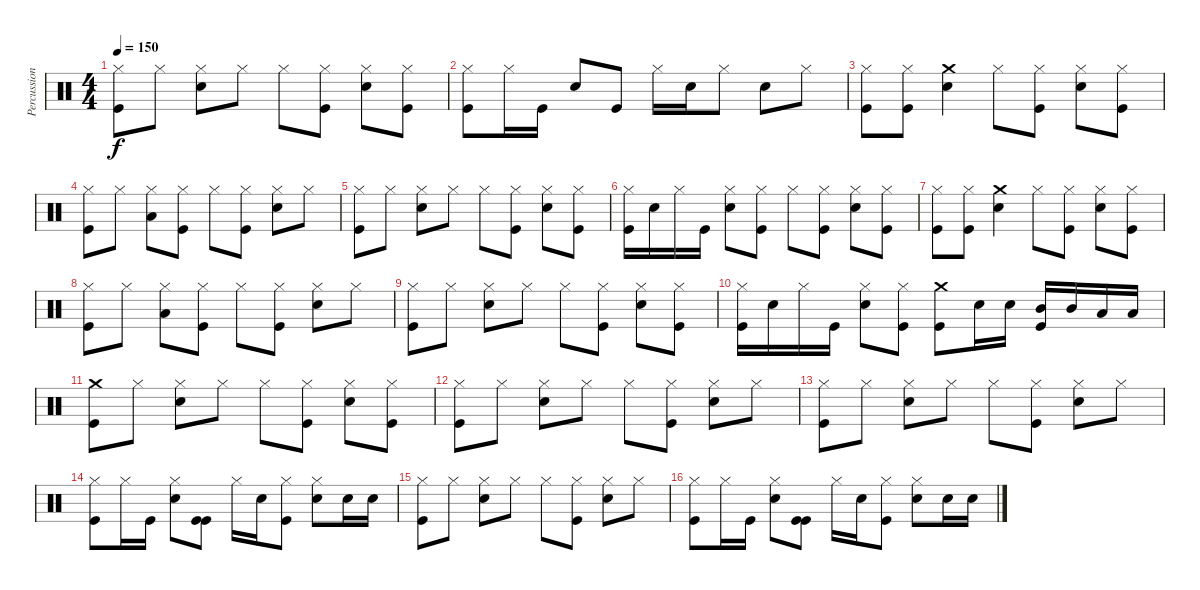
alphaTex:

\track ("Percussion" "Percussion") {instrument percussion}
\staff {score}
\articulation defaults
\ts (4 4)
\tempo 150
\clef neutral
\ks c
("Kick (hit)" "Hi-Hat (closed)").8{dy f} "Hi-Hat (closed)".8 ("Electric Snare (hit)" "Hi-Hat (closed)").8 "Hi-Hat (closed)".8 "Hi-Hat (closed)".8 ("Hi-Hat (closed)" "Kick (hit)").8 ("Hi-Hat (closed)" "Electric Snare (hit)").8 ("Kick (hit)" "Hi-Hat (closed)").8 |
("Hi-Hat (closed)" "Kick (hit)").8 "Hi-Hat (closed)".16 "Kick (hit)".16 "Electric Snare (hit)".8 "Kick (hit)".8 "Hi-Hat (closed)".16 "Electric Snare (hit)".16 "Hi-Hat (closed)".8 "Electric Snare (hit)".8 "Hi-Hat (closed)".8 |
("Hi-Hat (closed)" "Kick (hit)").8 ("Hi-Hat (closed)" "Kick (hit)").8 ("Electric Snare (hit)" "Crash medium (hit)").4 "Hi-Hat (closed)".8 ("Hi-Hat (closed)" "Kick (hit)").8 ("Hi-Hat (closed)" "Electric Snare (hit)").8 ("Hi-Hat (closed)" "Kick (hit)").8 |
("Hi-Hat (closed)" "Kick (hit)").8 "Hi-Hat (closed)".8 ("Hi-Hat (closed)" "Low Tom (hit)").8 ("Hi-Hat (closed)" "Kick (hit)").8 "Hi-Hat (closed)".8 ("Hi-Hat (closed)" "Kick (hit)").8 ("Electric Snare (hit)" "Hi-Hat (closed)").8 "Hi-Hat (closed)".8 |
("Kick (hit)" "Hi-Hat (closed)").8 "Hi-Hat (closed)".8 ("Electric Snare (hit)" "Hi-Hat (closed)").8 "Hi-Hat (closed)".8 "Hi-Hat (closed)".8 ("Kick (hit)" "Hi-Hat (closed)").8 ("Hi-Hat (closed)" "Electric Snare (hit)").8 ("Kick (hit)" "Hi-Hat (closed)").8 |
("Kick (hit)" "Hi-Hat (closed)").16 "Electric Snare (hit)".16 "Hi-Hat (closed)".16 "Kick (hit)".16 ("Electric Snare (hit)" "Hi-Hat (closed)").8 ("Kick (hit)" "Hi-Hat (closed)").8 "Hi-Hat (closed)".8 ("Hi-Hat (closed)" "Kick (hit)").8 ("Hi-Hat (closed)" "Electric Snare (hit)").8 ("Hi-Hat (closed)" "Kick (hit)").8 |
("Hi-Hat (closed)" "Kick (hit)").8 ("Hi-Hat (closed)" "Kick (hit)").8 ("Electric Snare (hit)" "Crash medium (hit)").4 "Hi-Hat (closed)".8 ("Hi-Hat (closed)" "Kick (hit)").8 ("Hi-Hat (closed)" "Electric Snare (hit)").8 ("Hi-Hat (closed)" "Kick (hit)").8 |
("Hi-Hat (closed)" "Kick (hit)").8 "Hi-Hat (closed)".8 ("Hi-Hat (closed)" "Low Tom (hit)").8 ("Hi-Hat (closed)" "Kick (hit)").8 "Hi-Hat (closed)".8 ("Hi-Hat (closed)" "Kick (hit)").8 ("Electric Snare (hit)" "Hi-Hat (closed)").8 "Hi-Hat (closed)".8 |
("Kick (hit)" "Hi-Hat (closed)").8 "Hi-Hat (closed)".8 ("Electric Snare (hit)" "Hi-Hat (closed)").8 "Hi-Hat (closed)".8 "Hi-Hat (closed)".8 ("Kick (hit)" "Hi-Hat (closed)").8 ("Hi-Hat (closed)" "Electric Snare (hit)").8 ("Kick (hit)" "Hi-Hat (closed)").8 |
("Kick (hit)" "Hi-Hat (closed)").16 "Electric Snare (hit)".16 "Hi-Hat (closed)".16 "Kick (hit)".16 ("Electric Snare (hit)" "Hi-Hat (closed)").8 ("Kick (hit)" "Hi-Hat (closed)").8 ("Kick (hit)" "Crash medium (hit)").8 "Electric Snare (hit)".16 "Electric Snare (hit)".16 ("Mid Tom (hit)" "Kick (hit)").16 "Mid Tom (hit)".16 "Low Tom (hit)".16 "Low Tom (hit)".16 |
("Kick (hit)" "Crash medium (hit)").8 "Hi-Hat (closed)".8 ("Hi-Hat (closed)" "Electric Snare (hit)").8 "Hi-Hat (closed)".8 "Hi-Hat (closed)".8 ("Kick (hit)" "Hi-Hat (closed)").8 ("Electric Snare (hit)" "Hi-Hat (closed)").8 ("Kick (hit)" "Hi-Hat (closed)").8 |
("Hi-Hat (closed)" "Kick (hit)").8 "Hi-Hat (closed)".8 ("Hi-Hat (closed)" "Electric Snare (hit)").8 "Hi-Hat (closed)".8 "Hi-Hat (closed)".8 ("Hi-Hat (closed)" "Kick (hit)").8 ("Hi-Hat (closed)" "Electric Snare (hit)").8 "Hi-Hat (closed)".8 |
("Hi-Hat (closed)" "Kick (hit)").8 "Hi-Hat (closed)".8 ("Hi-Hat (closed)" "Electric Snare (hit)").8 "Hi-Hat (closed)".8 "Hi-Hat (closed)".8 ("Hi-Hat (closed)" "Kick (hit)").8 ("Hi-Hat (closed)" "Electric Snare (hit)").8 "Hi-Hat (closed)".8 |
("Kick (hit)" "Hi-Hat (closed)").8 "Hi-Hat (closed)".16 "Kick (hit)".16 ("Electric Snare (hit)" "Hi-Hat (closed)").8 ("Kick (hit)" "Kick (hit)").8 "Hi-Hat (closed)".16 "Electric Snare (hit)".16 ("Kick (hit)" "Hi-Hat (closed)").8 ("Hi-Hat (closed)" "Electric Snare (hit)").8 "Electric Snare (hit)".16 "Electric Snare (hit)".16 |
("Hi-Hat (closed)" "Kick (hit)").8 "Hi-Hat (closed)".8 ("Hi-Hat (closed)" "Electric Snare (hit)").8 "Hi-Hat (closed)".8 "Hi-Hat (closed)".8 ("Hi-Hat (closed)" "Kick (hit)").8 ("Hi-Hat (closed)" "Electric Snare (hit)").8 "Hi-Hat (closed)".8 |
("Kick (hit)" "Hi-Hat (closed)").8 "Hi-Hat (closed)".16 "Kick (hit)".16 ("Electric Snare (hit)" "Hi-Hat (closed)").8 ("Kick (hit)" "Kick (hit)").8 "Hi-Hat (closed)".16 "Electric Snare (hit)".16 ("Kick (hit)" "Hi-Hat (closed)").8 ("Hi-Hat (closed)" "Electric Snare (hit)").8 "Electric Snare (hit)".16 "Electric Snare (hit)".16
